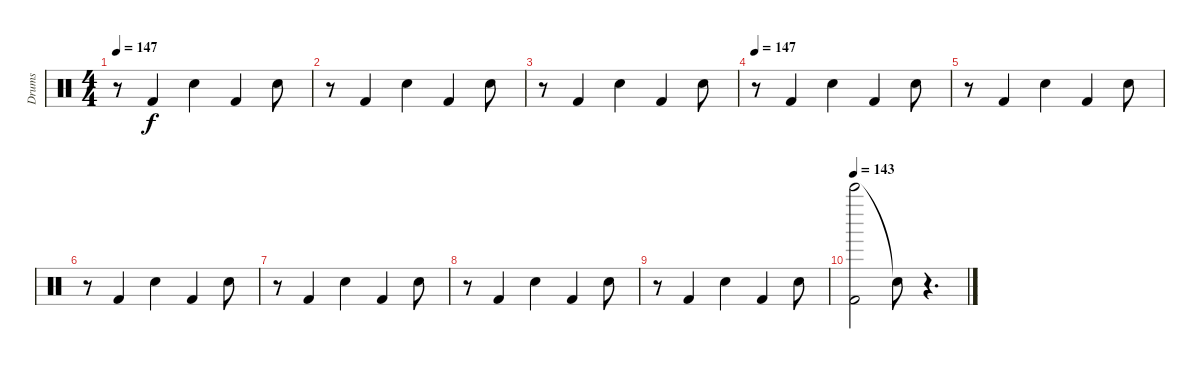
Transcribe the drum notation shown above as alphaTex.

\track ("Drums" "Drums") {instrument percussion}
\staff {score}
\articulation defaults
\ts (4 4)
\tempo 147
\clef neutral
\ks c
r.8{dy f} "Kick (hit) 2".4 "Snare (hit) 2".4 "Kick (hit) 2".4 "Snare (hit) 2".8 |
r.8 "Kick (hit) 2".4 "Snare (hit) 2".4 "Kick (hit) 2".4 "Snare (hit) 2".8 |
r.8 "Kick (hit) 2".4 "Snare (hit) 2".4 "Kick (hit) 2".4 "Snare (hit) 2".8 |
\tempo 147
r.8 "Kick (hit) 2".4 "Snare (hit) 2".4 "Kick (hit) 2".4 "Snare (hit) 2".8 |
r.8 "Kick (hit) 2".4 "Snare (hit) 2".4 "Kick (hit) 2".4 "Snare (hit) 2".8 |
r.8 "Kick (hit) 2".4 "Snare (hit) 2".4 "Kick (hit) 2".4 "Snare (hit) 2".8 |
r.8 "Kick (hit) 2".4 "Snare (hit) 2".4 "Kick (hit) 2".4 "Snare (hit) 2".8 |
r.8 "Kick (hit) 2".4 "Snare (hit) 2".4 "Kick (hit) 2".4 "Snare (hit) 2".8 |
r.8 "Kick (hit) 2".4 "Snare (hit) 2".4 "Kick (hit) 2".4 "Snare (hit) 2".8 |
\tempo 143
("Bell Tree (hit)" "Kick (hit) 2").2 "Snare (hit)"{t}.8 r.4{d}
